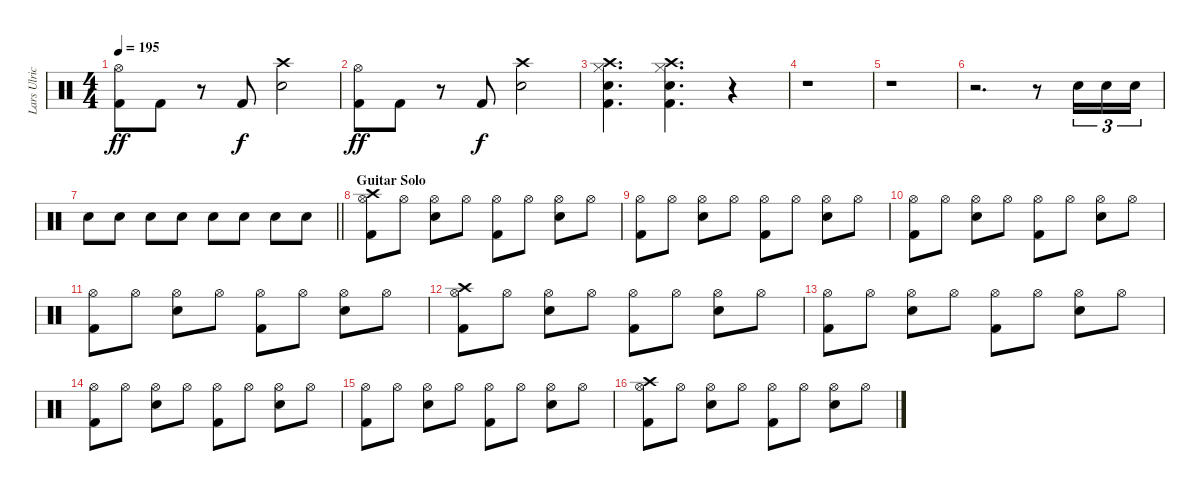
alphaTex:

\track ("Lars Ulrich" "Lars Ulric") {instrument percussion}
\staff {score}
\articulation defaults
\ts (4 4)
\tempo 195
\clef neutral
\ks c
("Kick (hit) 2" "Hi-Hat (open)").8{dy ff} "Kick (hit) 2".8 r.8 "Kick (hit) 2".8{dy f} ("Snare (hit) 2" "Crash high (hit)").2 |
("Kick (hit) 2" "Hi-Hat (open)").8{dy ff} "Kick (hit) 2".8 r.8 "Kick (hit) 2".8{dy f} ("Snare (hit) 2" "Crash high (hit)").2 |
("Kick (hit) 2" "Snare (hit) 2" "Hi-Hat (closed)" "Crash high (hit)").4{d} ("Kick (hit) 2" "Snare (hit) 2" "Hi-Hat (closed)" "Crash high (hit)").4{d} r.4 |
r.1 |
r.1 |
r.2{d} r.8 "Snare (hit) 2".16{tu (3 2)} "Snare (hit) 2".16{tu (3 2)} "Snare (hit) 2".16{tu (3 2)} |
\barLineRight lightlight "Snare (hit) 2".8 "Snare (hit) 2".8 "Snare (hit) 2".8 "Snare (hit) 2".8 "Snare (hit) 2".8 "Snare (hit) 2".8 "Snare (hit) 2".8 "Snare (hit) 2".8
|
\section ("" "Guitar Solo")
("Kick (hit) 2" "Hi-Hat (open)" "Crash high (hit)").8 "Hi-Hat (open)".8 ("Snare (hit) 2" "Hi-Hat (open)").8 "Hi-Hat (open)".8 ("Kick (hit) 2" "Hi-Hat (open)").8 "Hi-Hat (open)".8 ("Snare (hit) 2" "Hi-Hat (open)").8 "Hi-Hat (open)".8 |
("Kick (hit) 2" "Hi-Hat (open)").8 "Hi-Hat (open)".8 ("Snare (hit) 2" "Hi-Hat (open)").8 "Hi-Hat (open)".8 ("Kick (hit) 2" "Hi-Hat (open)").8 "Hi-Hat (open)".8 ("Snare (hit) 2" "Hi-Hat (open)").8 "Hi-Hat (open)".8 |
("Kick (hit) 2" "Hi-Hat (open)").8 "Hi-Hat (open)".8 ("Snare (hit) 2" "Hi-Hat (open)").8 "Hi-Hat (open)".8 ("Kick (hit) 2" "Hi-Hat (open)").8 "Hi-Hat (open)".8 ("Snare (hit) 2" "Hi-Hat (open)").8 "Hi-Hat (open)".8 |
("Kick (hit) 2" "Hi-Hat (open)").8 "Hi-Hat (open)".8 ("Snare (hit) 2" "Hi-Hat (open)").8 "Hi-Hat (open)".8 ("Kick (hit) 2" "Hi-Hat (open)").8 "Hi-Hat (open)".8 ("Snare (hit) 2" "Hi-Hat (open)").8 "Hi-Hat (open)".8 |
("Kick (hit) 2" "Hi-Hat (open)" "Crash high (hit)").8 "Hi-Hat (open)".8 ("Snare (hit) 2" "Hi-Hat (open)").8 "Hi-Hat (open)".8 ("Kick (hit) 2" "Hi-Hat (open)").8 "Hi-Hat (open)".8 ("Snare (hit) 2" "Hi-Hat (open)").8 "Hi-Hat (open)".8 |
("Kick (hit) 2" "Hi-Hat (open)").8 "Hi-Hat (open)".8 ("Snare (hit) 2" "Hi-Hat (open)").8 "Hi-Hat (open)".8 ("Kick (hit) 2" "Hi-Hat (open)").8 "Hi-Hat (open)".8 ("Snare (hit) 2" "Hi-Hat (open)").8 "Hi-Hat (open)".8 |
("Kick (hit) 2" "Hi-Hat (open)").8 "Hi-Hat (open)".8 ("Snare (hit) 2" "Hi-Hat (open)").8 "Hi-Hat (open)".8 ("Kick (hit) 2" "Hi-Hat (open)").8 "Hi-Hat (open)".8 ("Snare (hit) 2" "Hi-Hat (open)").8 "Hi-Hat (open)".8 |
("Kick (hit) 2" "Hi-Hat (open)").8 "Hi-Hat (open)".8 ("Snare (hit) 2" "Hi-Hat (open)").8 "Hi-Hat (open)".8 ("Kick (hit) 2" "Hi-Hat (open)").8 "Hi-Hat (open)".8 ("Snare (hit) 2" "Hi-Hat (open)").8 "Hi-Hat (open)".8 |
("Kick (hit) 2" "Hi-Hat (open)" "Crash high (hit)").8 "Hi-Hat (open)".8 ("Snare (hit) 2" "Hi-Hat (open)").8 "Hi-Hat (open)".8 ("Kick (hit) 2" "Hi-Hat (open)").8 "Hi-Hat (open)".8 ("Snare (hit) 2" "Hi-Hat (open)").8 "Hi-Hat (open)".8
